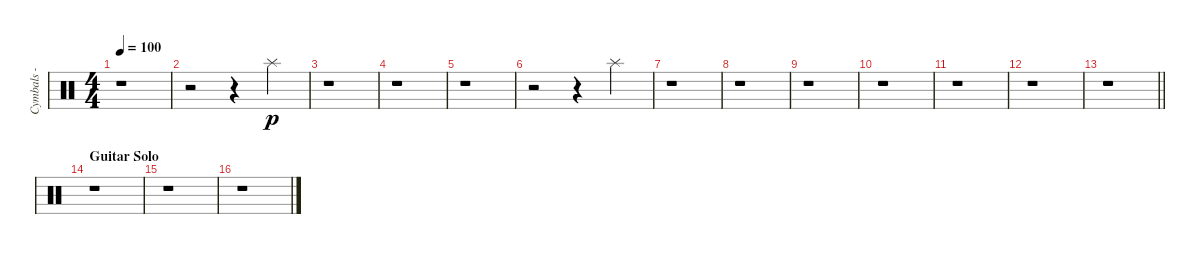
\track ("Cymbals - splash" "Cymbals - ") {instrument percussion}
\staff {score}
\articulation defaults
\ts (4 4)
\tempo 100
\clef neutral
\ks c
r.1{dy p} |
r.2 r.4 "Splash (hit)".4 |
r.1 |
r.1 |
r.1 |
r.2 r.4 "Splash (hit)".4 |
r.1 |
r.1 |
r.1 |
r.1 |
r.1 |
r.1 |
\barLineRight lightlight
r.1 |
\section ("" "Guitar Solo")
r.1 |
r.1 |
r.1
